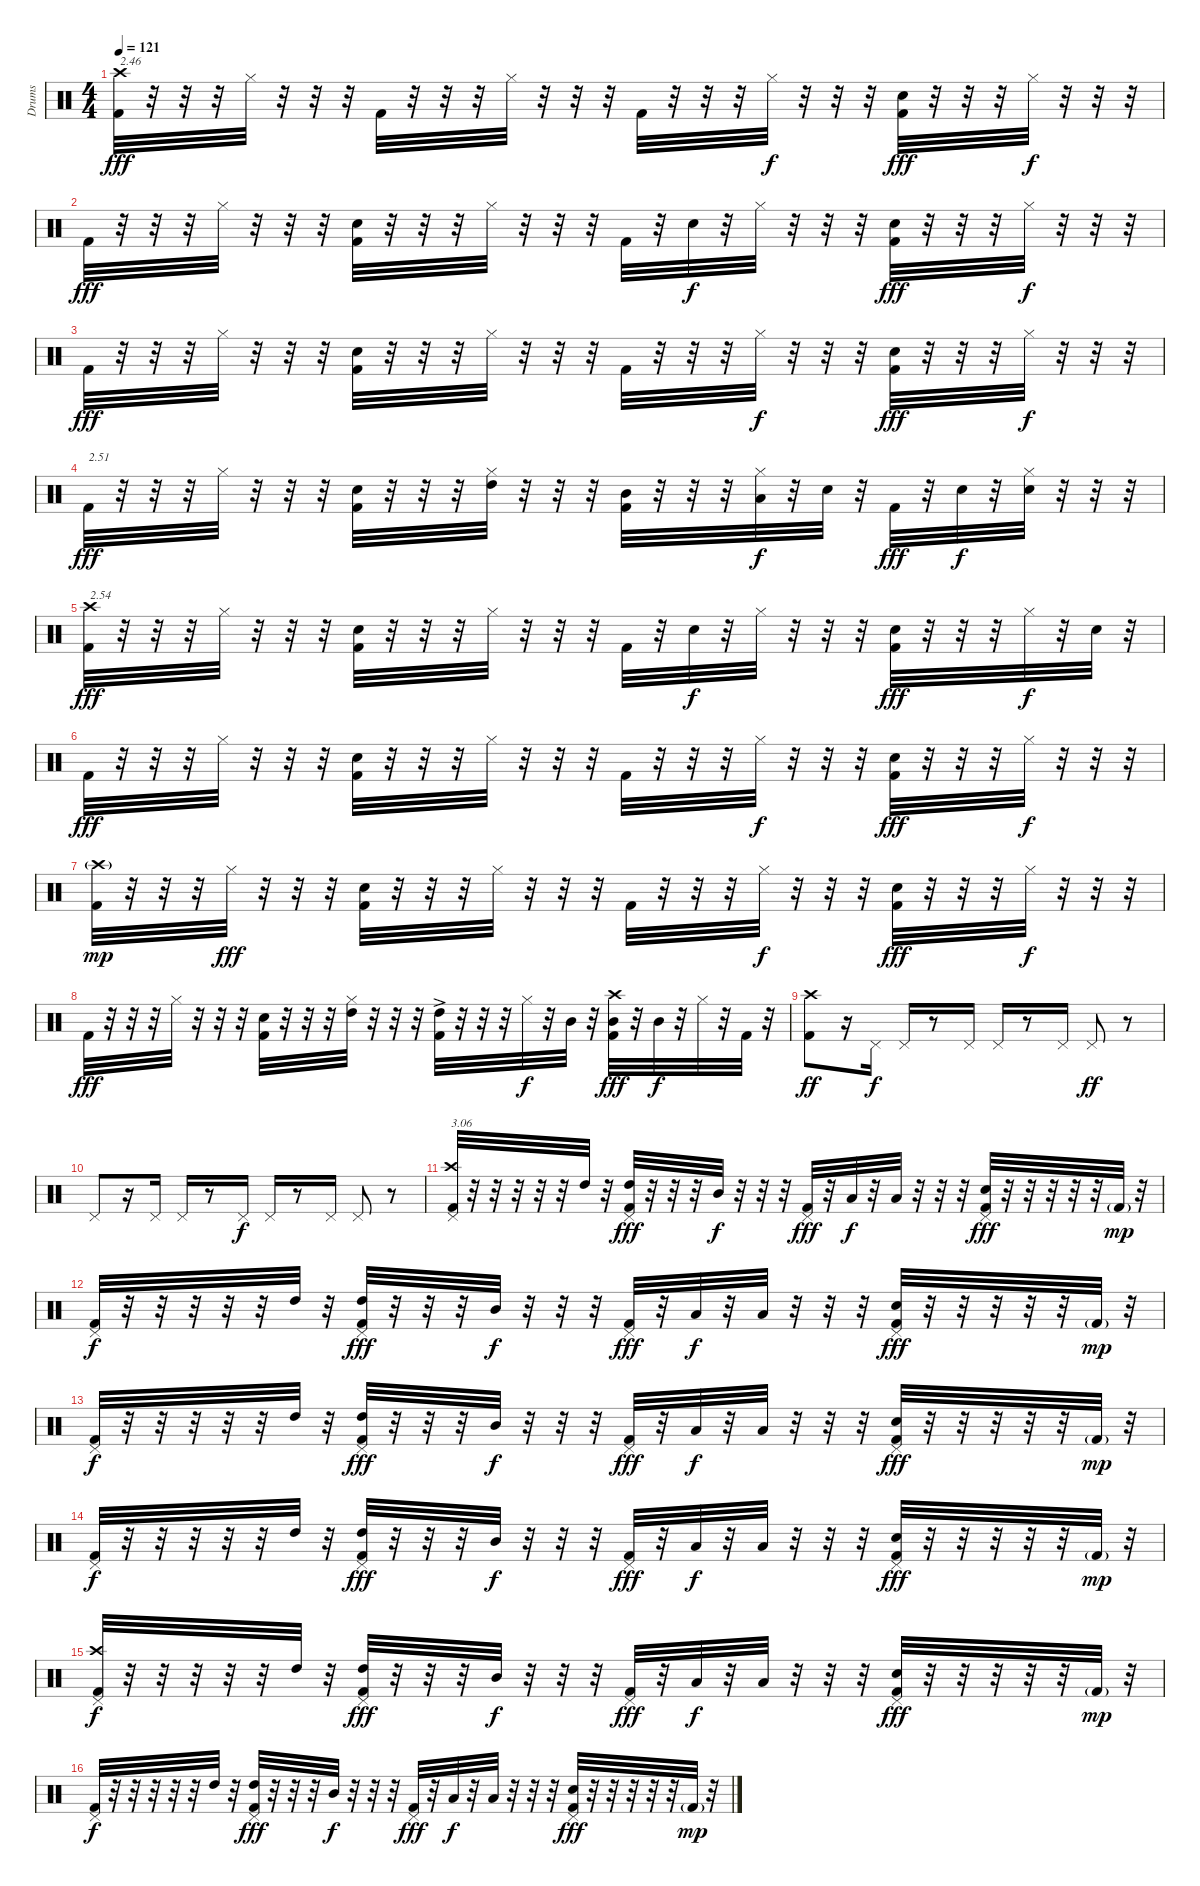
\track ("Drums" "Drums") {instrument percussion}
\staff {score}
\articulation defaults
\ts (4 4)
\tempo 121
\clef neutral
\ks c
("Kick (hit) 2" "Crash high (hit)").32{txt "2.46" dy fff} r.32 r.32 r.32 "Hi-Hat (closed)".32 r.32 r.32 r.32 "Kick (hit) 2".32 r.32 r.32 r.32 "Hi-Hat (closed)".32 r.32 r.32 r.32 "Kick (hit) 2".32 r.32 r.32 r.32 "Hi-Hat (closed)".32{dy f} r.32 r.32 r.32 ("Kick (hit) 2" "Electric Snare (hit)").32{dy fff} r.32 r.32 r.32 "Hi-Hat (closed)".32{dy f} r.32 r.32 r.32 |
"Kick (hit) 2".32{dy fff} r.32 r.32 r.32 "Hi-Hat (closed)".32 r.32 r.32 r.32 ("Kick (hit) 2" "Electric Snare (hit)").32 r.32 r.32 r.32 "Hi-Hat (closed)".32 r.32 r.32 r.32 "Kick (hit) 2".32 r.32 "Electric Snare (hit)".32{dy f} r.32 "Hi-Hat (closed)".32 r.32 r.32 r.32 ("Kick (hit) 2" "Electric Snare (hit)").32{dy fff} r.32 r.32 r.32 "Hi-Hat (closed)".32{dy f} r.32 r.32 r.32 |
"Kick (hit) 2".32{dy fff} r.32 r.32 r.32 "Hi-Hat (closed)".32 r.32 r.32 r.32 ("Kick (hit) 2" "Electric Snare (hit)").32 r.32 r.32 r.32 "Hi-Hat (closed)".32 r.32 r.32 r.32 "Kick (hit) 2".32 r.32 r.32 r.32 "Hi-Hat (closed)".32{dy f} r.32 r.32 r.32 ("Kick (hit) 2" "Electric Snare (hit)").32{dy fff} r.32 r.32 r.32 "Hi-Hat (closed)".32{dy f} r.32 r.32 r.32 |
"Kick (hit) 2".32{txt "2.51" dy fff} r.32 r.32 r.32 "Hi-Hat (closed)".32 r.32 r.32 r.32 ("Kick (hit) 2" "Electric Snare (hit)").32 r.32 r.32 r.32 ("Hi-Hat (closed)" "High Tom (hit)").32 r.32 r.32 r.32 ("Kick (hit) 2" "Mid Tom (hit)").32 r.32 r.32 r.32 ("Hi-Hat (closed)" "Low Tom (hit)").32{dy f} r.32 "Electric Snare (hit)".32 r.32 "Kick (hit) 2".32{dy fff} r.32 "Electric Snare (hit)".32{dy f} r.32 ("Hi-Hat (closed)" "Electric Snare (hit)").32 r.32 r.32 r.32 |
("Kick (hit) 2" "Crash high (hit)").32{txt "2.54" dy fff} r.32 r.32 r.32 "Hi-Hat (closed)".32 r.32 r.32 r.32 ("Kick (hit) 2" "Electric Snare (hit)").32 r.32 r.32 r.32 "Hi-Hat (closed)".32 r.32 r.32 r.32 "Kick (hit) 2".32 r.32 "Electric Snare (hit)".32{dy f} r.32 "Hi-Hat (closed)".32 r.32 r.32 r.32 ("Kick (hit) 2" "Electric Snare (hit)").32{dy fff} r.32 r.32 r.32 "Hi-Hat (closed)".32{dy f} r.32 "Electric Snare (hit)".32 r.32 |
"Kick (hit) 2".32{dy fff} r.32 r.32 r.32 "Hi-Hat (closed)".32 r.32 r.32 r.32 ("Kick (hit) 2" "Electric Snare (hit)").32 r.32 r.32 r.32 "Hi-Hat (closed)".32 r.32 r.32 r.32 "Kick (hit) 2".32 r.32 r.32 r.32 "Hi-Hat (closed)".32{dy f} r.32 r.32 r.32 ("Kick (hit) 2" "Electric Snare (hit)").32{dy fff} r.32 r.32 r.32 "Hi-Hat (closed)".32{dy f} r.32 r.32 r.32 |
("Kick (hit) 2" "Crash high (hit)"{g}).32{dy mp} r.32 r.32 r.32 "Hi-Hat (closed)".32{dy fff} r.32 r.32 r.32 ("Kick (hit) 2" "Electric Snare (hit)").32 r.32 r.32 r.32 "Hi-Hat (closed)".32 r.32 r.32 r.32 "Kick (hit) 2".32 r.32 r.32 r.32 "Hi-Hat (closed)".32{dy f} r.32 r.32 r.32 ("Kick (hit) 2" "Electric Snare (hit)").32{dy fff} r.32 r.32 r.32 "Hi-Hat (closed)".32{dy f} r.32 r.32 r.32 |
"Kick (hit) 2".32{dy fff} r.32 r.32 r.32 "Hi-Hat (closed)".32 r.32 r.32 r.32 ("Kick (hit) 2" "Electric Snare (hit)").32 r.32 r.32 r.32 ("Hi-Hat (closed)" "High Tom (hit)").32 r.32 r.32 r.32 ("Kick (hit) 2" "High Tom (hit)"{ac}).32 r.32 r.32 r.32 "Hi-Hat (closed)".32{dy f} r.32 "Mid Tom (hit)".32 r.32 ("Kick (hit) 2" "Crash high (hit)" "Mid Tom (hit)").32{dy fff} r.32 "Mid Tom (hit)".32{dy f} r.32 "Hi-Hat (closed)".32 r.32 "Kick (hit) 2".32 r.32 |
("Kick (hit) 2" "Crash high (hit)").8{dy ff} r.16 "Pedal Hi-Hat (hit)".16{dy f} "Pedal Hi-Hat (hit)".16 r.8 "Pedal Hi-Hat (hit)".16 "Pedal Hi-Hat (hit)".16 r.8 "Pedal Hi-Hat (hit)".16 "Pedal Hi-Hat (hit)".8{dy ff} r.8 |
"Pedal Hi-Hat (hit)".8 r.16 "Pedal Hi-Hat (hit)".16 "Pedal Hi-Hat (hit)".16 r.8 "Pedal Hi-Hat (hit)".16{dy f} "Pedal Hi-Hat (hit)".16 r.8 "Pedal Hi-Hat (hit)".16 "Pedal Hi-Hat (hit)".8 r.8 |
("Pedal Hi-Hat (hit)" "Kick (hit) 2" "Crash high (hit)").32{txt "3.06"} r.32 r.32 r.32 r.32 r.32 "High Tom (hit)".32 r.32 ("Pedal Hi-Hat (hit)" "Kick (hit) 2" "High Tom (hit)").32{dy fff} r.32 r.32 r.32 "Mid Tom (hit)".32{dy f} r.32 r.32 r.32 ("Pedal Hi-Hat (hit)" "Kick (hit) 2").32{dy fff} r.32 "Low Tom (hit)".32{dy f} r.32 "Low Tom (hit)".32 r.32 r.32 r.32 ("Pedal Hi-Hat (hit)" "Kick (hit) 2" "Snare (hit) 2").32{dy fff} r.32 r.32 r.32 r.32 r.32 "Kick (hit) 2"{g}.32{dy mp} r.32 |
("Pedal Hi-Hat (hit)" "Kick (hit) 2").32{dy f} r.32 r.32 r.32 r.32 r.32 "High Tom (hit)".32 r.32 ("Pedal Hi-Hat (hit)" "Kick (hit) 2" "High Tom (hit)").32{dy fff} r.32 r.32 r.32 "Mid Tom (hit)".32{dy f} r.32 r.32 r.32 ("Pedal Hi-Hat (hit)" "Kick (hit) 2").32{dy fff} r.32 "Low Tom (hit)".32{dy f} r.32 "Low Tom (hit)".32 r.32 r.32 r.32 ("Pedal Hi-Hat (hit)" "Kick (hit) 2" "Snare (hit) 2").32{dy fff} r.32 r.32 r.32 r.32 r.32 "Kick (hit) 2"{g}.32{dy mp} r.32 |
("Pedal Hi-Hat (hit)" "Kick (hit) 2").32{dy f} r.32 r.32 r.32 r.32 r.32 "High Tom (hit)".32 r.32 ("Pedal Hi-Hat (hit)" "Kick (hit) 2" "High Tom (hit)").32{dy fff} r.32 r.32 r.32 "Mid Tom (hit)".32{dy f} r.32 r.32 r.32 ("Pedal Hi-Hat (hit)" "Kick (hit) 2").32{dy fff} r.32 "Low Tom (hit)".32{dy f} r.32 "Low Tom (hit)".32 r.32 r.32 r.32 ("Pedal Hi-Hat (hit)" "Kick (hit) 2" "Snare (hit) 2").32{dy fff} r.32 r.32 r.32 r.32 r.32 "Kick (hit) 2"{g}.32{dy mp} r.32 |
("Pedal Hi-Hat (hit)" "Kick (hit) 2").32{dy f} r.32 r.32 r.32 r.32 r.32 "High Tom (hit)".32 r.32 ("Pedal Hi-Hat (hit)" "Kick (hit) 2" "High Tom (hit)").32{dy fff} r.32 r.32 r.32 "Mid Tom (hit)".32{dy f} r.32 r.32 r.32 ("Pedal Hi-Hat (hit)" "Kick (hit) 2").32{dy fff} r.32 "Low Tom (hit)".32{dy f} r.32 "Low Tom (hit)".32 r.32 r.32 r.32 ("Pedal Hi-Hat (hit)" "Kick (hit) 2" "Snare (hit) 2").32{dy fff} r.32 r.32 r.32 r.32 r.32 "Kick (hit) 2"{g}.32{dy mp} r.32 |
("Pedal Hi-Hat (hit)" "Kick (hit) 2" "Crash high (hit)").32{dy f} r.32 r.32 r.32 r.32 r.32 "High Tom (hit)".32 r.32 ("Pedal Hi-Hat (hit)" "Kick (hit) 2" "High Tom (hit)").32{dy fff} r.32 r.32 r.32 "Mid Tom (hit)".32{dy f} r.32 r.32 r.32 ("Pedal Hi-Hat (hit)" "Kick (hit) 2").32{dy fff} r.32 "Low Tom (hit)".32{dy f} r.32 "Low Tom (hit)".32 r.32 r.32 r.32 ("Pedal Hi-Hat (hit)" "Kick (hit) 2" "Snare (hit) 2").32{dy fff} r.32 r.32 r.32 r.32 r.32 "Kick (hit) 2"{g}.32{dy mp} r.32 |
("Pedal Hi-Hat (hit)" "Kick (hit) 2").32{dy f} r.32 r.32 r.32 r.32 r.32 "High Tom (hit)".32 r.32 ("Pedal Hi-Hat (hit)" "Kick (hit) 2" "High Tom (hit)").32{dy fff} r.32 r.32 r.32 "Mid Tom (hit)".32{dy f} r.32 r.32 r.32 ("Pedal Hi-Hat (hit)" "Kick (hit) 2").32{dy fff} r.32 "Low Tom (hit)".32{dy f} r.32 "Low Tom (hit)".32 r.32 r.32 r.32 ("Pedal Hi-Hat (hit)" "Kick (hit) 2" "Snare (hit) 2").32{dy fff} r.32 r.32 r.32 r.32 r.32 "Kick (hit) 2"{g}.32{dy mp} r.32
